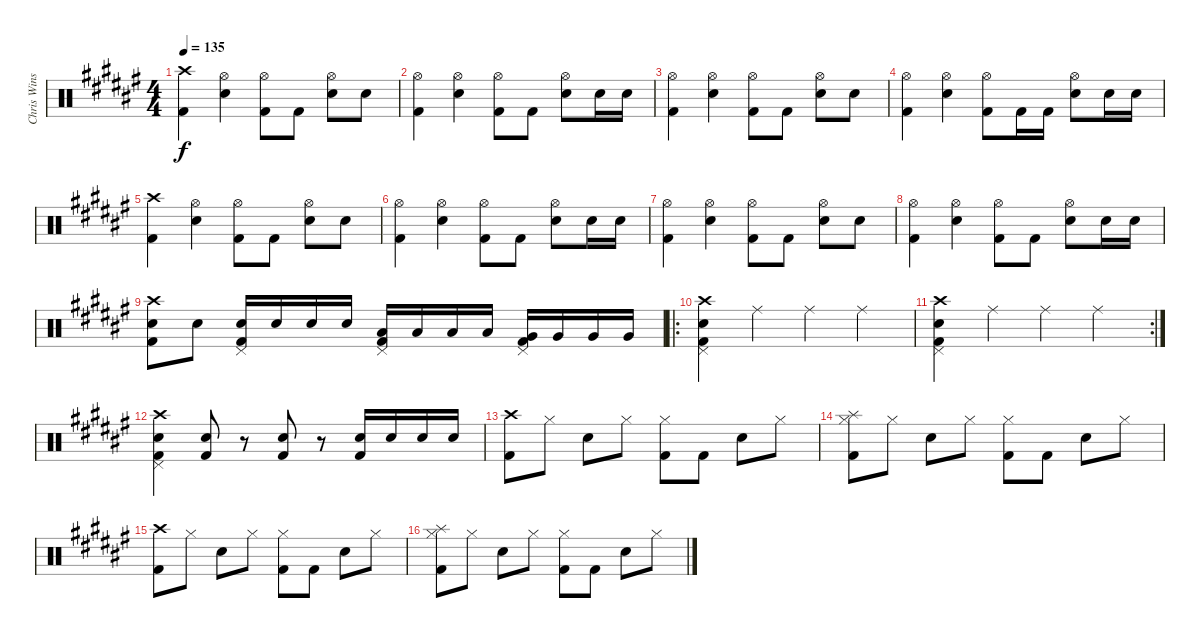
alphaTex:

\track ("Chris Winship (Drums)" "Chris Wins") {instrument percussion}
\staff {score}
\articulation defaults
\ts (4 4)
\tempo 135
\clef neutral
\ks f#
("Crash high (hit)" "Kick (hit) 2").4{dy f} ("Hi-Hat (open)" "Electric Snare (hit)").4 ("Hi-Hat (open)" "Kick (hit) 2").8 "Kick (hit) 2".8 ("Hi-Hat (open)" "Electric Snare (hit)").8 "Electric Snare (hit)".8 |
("Hi-Hat (open)" "Kick (hit) 2").4 ("Hi-Hat (open)" "Electric Snare (hit)").4 ("Hi-Hat (open)" "Kick (hit) 2").8 "Kick (hit) 2".8 ("Hi-Hat (open)" "Electric Snare (hit)").8 "Electric Snare (hit)".16 "Electric Snare (hit)".16 |
("Hi-Hat (open)" "Kick (hit) 2").4 ("Hi-Hat (open)" "Electric Snare (hit)").4 ("Hi-Hat (open)" "Kick (hit) 2").8 "Kick (hit) 2".8 ("Hi-Hat (open)" "Electric Snare (hit)").8 "Electric Snare (hit)".8 |
("Hi-Hat (open)" "Kick (hit) 2").4 ("Hi-Hat (open)" "Electric Snare (hit)").4 ("Hi-Hat (open)" "Kick (hit) 2").8 "Kick (hit) 2".16 "Kick (hit) 2".16 ("Hi-Hat (open)" "Electric Snare (hit)").8 "Electric Snare (hit)".16 "Electric Snare (hit)".16 |
("Crash high (hit)" "Kick (hit) 2").4 ("Hi-Hat (open)" "Electric Snare (hit)").4 ("Hi-Hat (open)" "Kick (hit) 2").8 "Kick (hit) 2".8 ("Hi-Hat (open)" "Electric Snare (hit)").8 "Electric Snare (hit)".8 |
("Hi-Hat (open)" "Kick (hit) 2").4 ("Hi-Hat (open)" "Electric Snare (hit)").4 ("Hi-Hat (open)" "Kick (hit) 2").8 "Kick (hit) 2".8 ("Hi-Hat (open)" "Electric Snare (hit)").8 "Electric Snare (hit)".16 "Electric Snare (hit)".16 |
("Hi-Hat (open)" "Kick (hit) 2").4 ("Hi-Hat (open)" "Electric Snare (hit)").4 ("Hi-Hat (open)" "Kick (hit) 2").8 "Kick (hit) 2".8 ("Hi-Hat (open)" "Electric Snare (hit)").8 "Electric Snare (hit)".8 |
("Hi-Hat (open)" "Kick (hit) 2").4 ("Hi-Hat (open)" "Electric Snare (hit)").4 ("Hi-Hat (open)" "Kick (hit) 2").8 "Kick (hit) 2".8 ("Hi-Hat (open)" "Electric Snare (hit)").8 "Electric Snare (hit)".16 "Electric Snare (hit)".16 |
("Crash high (hit)" "Kick (hit) 2" "Electric Snare (hit)").8 "Electric Snare (hit)".8 ("Pedal Hi-Hat (hit)" "Kick (hit) 2" "Electric Snare (hit)").16 "Electric Snare (hit)".16 "Electric Snare (hit)".16 "Electric Snare (hit)".16 ("Pedal Hi-Hat (hit)" "Kick (hit) 2" "Low Floor Tom (hit)").16 "Low Floor Tom (hit)".16 "Low Floor Tom (hit)".16 "Low Floor Tom (hit)".16 ("Pedal Hi-Hat (hit)" "Kick (hit) 2" "Very Low Tom (hit)").16 "Very Low Tom (hit)".16 "Very Low Tom (hit)".16 "Very Low Tom (hit)".16 |
\ro
("Crash high (hit)" "Electric Snare (hit)" "Kick (hit) 2" "Pedal Hi-Hat (hit)").4 "Ride (middle)".4 "Ride (middle)".4 "Ride (middle)".4 |
\rc 2
("Crash high (hit)" "Electric Snare (hit)" "Kick (hit) 2" "Pedal Hi-Hat (hit)").4 "Ride (middle)".4 "Ride (middle)".4 "Ride (middle)".4 |
("Crash high (hit)" "Pedal Hi-Hat (hit)" "Electric Snare (hit)" "Kick (hit) 2").4 ("Electric Snare (hit)" "Kick (hit) 2").8 r.8 ("Electric Snare (hit)" "Kick (hit) 2").8 r.8 ("Electric Snare (hit)" "Kick (hit) 2").16 "Electric Snare (hit)".16 "Electric Snare (hit)".16 "Electric Snare (hit)".16 |
("Crash high (hit)" "Kick (hit) 2").8 "Hi-Hat (closed)".8 "Electric Snare (hit)".8 "Hi-Hat (closed)".8 ("Hi-Hat (closed)" "Kick (hit) 2").8 "Kick (hit) 2".8 "Electric Snare (hit)".8 "Hi-Hat (closed)".8 |
("Hi-Hat (closed)" "Kick (hit) 2" "Splash (hit)").8 "Hi-Hat (closed)".8 "Electric Snare (hit)".8 "Hi-Hat (closed)".8 ("Hi-Hat (closed)" "Kick (hit) 2").8 "Kick (hit) 2".8 "Electric Snare (hit)".8 "Hi-Hat (closed)".8 |
("Crash high (hit)" "Kick (hit) 2").8 "Hi-Hat (closed)".8 "Electric Snare (hit)".8 "Hi-Hat (closed)".8 ("Hi-Hat (closed)" "Kick (hit) 2").8 "Kick (hit) 2".8 "Electric Snare (hit)".8 "Hi-Hat (closed)".8 |
("Hi-Hat (closed)" "Kick (hit) 2" "Splash (hit)").8 "Hi-Hat (closed)".8 "Electric Snare (hit)".8 "Hi-Hat (closed)".8 ("Hi-Hat (closed)" "Kick (hit) 2").8 "Kick (hit) 2".8 "Electric Snare (hit)".8 "Hi-Hat (closed)".8
